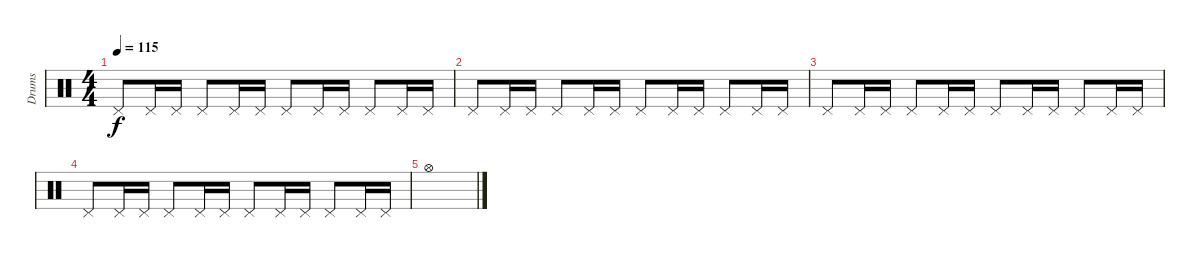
\track ("Drums" "Drums") {instrument percussion}
\staff {score}
\articulation defaults
\ts (4 4)
\tempo 115
\clef neutral
\ks c "Pedal Hi-Hat (hit)".8{dy f} "Pedal Hi-Hat (hit)".16 "Pedal Hi-Hat (hit)".16 "Pedal Hi-Hat (hit)".8 "Pedal Hi-Hat (hit)".16 "Pedal Hi-Hat (hit)".16 "Pedal Hi-Hat (hit)".8 "Pedal Hi-Hat (hit)".16 "Pedal Hi-Hat (hit)".16 "Pedal Hi-Hat (hit)".8 "Pedal Hi-Hat (hit)".16 "Pedal Hi-Hat (hit)".16
|
"Pedal Hi-Hat (hit)".8 "Pedal Hi-Hat (hit)".16 "Pedal Hi-Hat (hit)".16 "Pedal Hi-Hat (hit)".8 "Pedal Hi-Hat (hit)".16 "Pedal Hi-Hat (hit)".16 "Pedal Hi-Hat (hit)".8 "Pedal Hi-Hat (hit)".16 "Pedal Hi-Hat (hit)".16 "Pedal Hi-Hat (hit)".8 "Pedal Hi-Hat (hit)".16 "Pedal Hi-Hat (hit)".16 |
"Pedal Hi-Hat (hit)".8 "Pedal Hi-Hat (hit)".16 "Pedal Hi-Hat (hit)".16 "Pedal Hi-Hat (hit)".8 "Pedal Hi-Hat (hit)".16 "Pedal Hi-Hat (hit)".16 "Pedal Hi-Hat (hit)".8 "Pedal Hi-Hat (hit)".16 "Pedal Hi-Hat (hit)".16 "Pedal Hi-Hat (hit)".8 "Pedal Hi-Hat (hit)".16 "Pedal Hi-Hat (hit)".16 |
"Pedal Hi-Hat (hit)".8 "Pedal Hi-Hat (hit)".16 "Pedal Hi-Hat (hit)".16 "Pedal Hi-Hat (hit)".8 "Pedal Hi-Hat (hit)".16 "Pedal Hi-Hat (hit)".16 "Pedal Hi-Hat (hit)".8 "Pedal Hi-Hat (hit)".16 "Pedal Hi-Hat (hit)".16 "Pedal Hi-Hat (hit)".8 "Pedal Hi-Hat (hit)".16 "Pedal Hi-Hat (hit)".16 |
"Hi-Hat (open)".1
